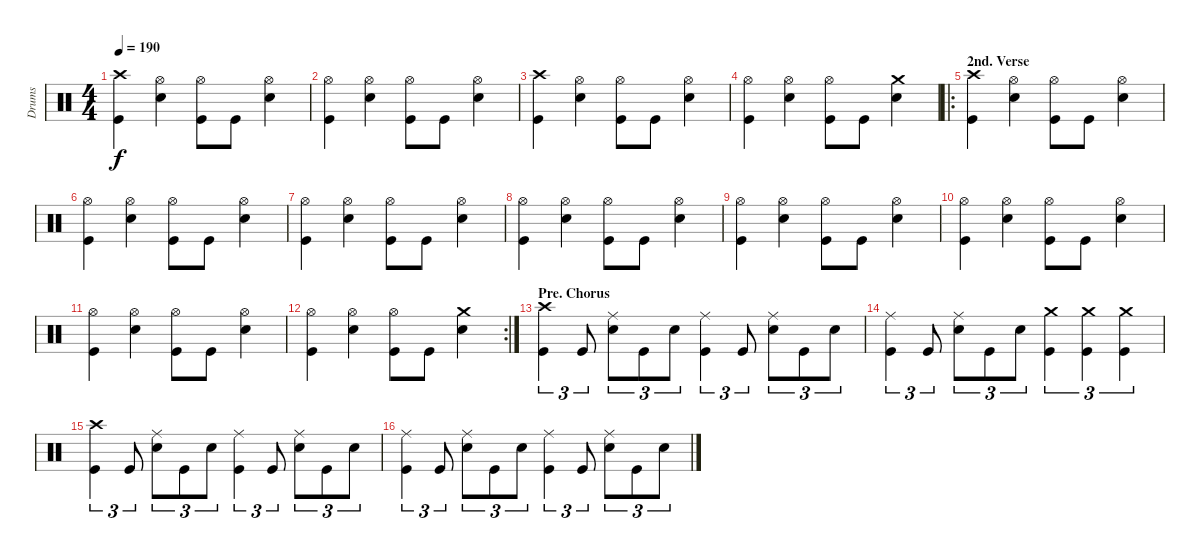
\track ("Drums" "Drums") {instrument percussion}
\staff {score}
\articulation defaults
\ts (4 4)
\tempo 190
\clef neutral
\ks c
("Crash high (hit)" "Kick (hit)").4{dy f} ("Hi-Hat (open)" "Snare (hit) 2").4 ("Hi-Hat (open)" "Kick (hit)").8 "Kick (hit)".8 ("Hi-Hat (open)" "Snare (hit) 2").4 |
("Hi-Hat (open)" "Kick (hit)").4 ("Hi-Hat (open)" "Snare (hit) 2").4 ("Hi-Hat (open)" "Kick (hit)").8 "Kick (hit)".8 ("Hi-Hat (open)" "Snare (hit) 2").4 |
("Crash high (hit)" "Kick (hit)").4 ("Hi-Hat (open)" "Snare (hit) 2").4 ("Hi-Hat (open)" "Kick (hit)").8 "Kick (hit)".8 ("Hi-Hat (open)" "Snare (hit) 2").4 |
("Hi-Hat (open)" "Kick (hit)").4 ("Hi-Hat (open)" "Snare (hit) 2").4 ("Hi-Hat (open)" "Kick (hit)").8 "Kick (hit)".8 ("Crash medium (hit)" "Snare (hit) 2").4 |
\ro
\section ("" "2nd. Verse")
("Crash high (hit)" "Kick (hit)").4 ("Hi-Hat (open)" "Snare (hit) 2").4 ("Hi-Hat (open)" "Kick (hit)").8 "Kick (hit)".8 ("Hi-Hat (open)" "Snare (hit) 2").4 |
("Hi-Hat (open)" "Kick (hit)").4 ("Hi-Hat (open)" "Snare (hit) 2").4 ("Hi-Hat (open)" "Kick (hit)").8 "Kick (hit)".8 ("Hi-Hat (open)" "Snare (hit) 2").4 |
("Hi-Hat (open)" "Kick (hit)").4 ("Hi-Hat (open)" "Snare (hit) 2").4 ("Hi-Hat (open)" "Kick (hit)").8 "Kick (hit)".8 ("Hi-Hat (open)" "Snare (hit) 2").4 |
("Hi-Hat (open)" "Kick (hit)").4 ("Hi-Hat (open)" "Snare (hit) 2").4 ("Hi-Hat (open)" "Kick (hit)").8 "Kick (hit)".8 ("Hi-Hat (open)" "Snare (hit) 2").4 |
("Hi-Hat (open)" "Kick (hit)").4 ("Hi-Hat (open)" "Snare (hit) 2").4 ("Hi-Hat (open)" "Kick (hit)").8 "Kick (hit)".8 ("Hi-Hat (open)" "Snare (hit) 2").4 |
("Hi-Hat (open)" "Kick (hit)").4 ("Hi-Hat (open)" "Snare (hit) 2").4 ("Hi-Hat (open)" "Kick (hit)").8 "Kick (hit)".8 ("Hi-Hat (open)" "Snare (hit) 2").4 |
("Hi-Hat (open)" "Kick (hit)").4 ("Hi-Hat (open)" "Snare (hit) 2").4 ("Hi-Hat (open)" "Kick (hit)").8 "Kick (hit)".8 ("Hi-Hat (open)" "Snare (hit) 2").4 |
\rc 2
("Hi-Hat (open)" "Kick (hit)").4 ("Hi-Hat (open)" "Snare (hit) 2").4 ("Hi-Hat (open)" "Kick (hit)").8 "Kick (hit)".8 ("Crash medium (hit)" "Snare (hit) 2").4 |
\section ("" "Pre. Chorus")
("Crash high (hit)" "Kick (hit)").4{tu (3 2)} "Kick (hit)".8{tu (3 2)} ("Ride (middle)" "Snare (hit) 2").8{tu (3 2)} "Kick (hit)".8{tu (3 2)} "Snare (hit) 2".8{tu (3 2)} ("Ride (middle)" "Kick (hit)").4{tu (3 2)} "Kick (hit)".8{tu (3 2)} ("Ride (middle)" "Snare (hit) 2").8{tu (3 2)} "Kick (hit)".8{tu (3 2)} "Snare (hit) 2".8{tu (3 2)} |
("Ride (middle)" "Kick (hit)").4{tu (3 2)} "Kick (hit)".8{tu (3 2)} ("Ride (middle)" "Snare (hit) 2").8{tu (3 2)} "Kick (hit)".8{tu (3 2)} "Snare (hit) 2".8{tu (3 2)} ("Crash medium (hit)" "Kick (hit)").4{tu (3 2)} ("Crash medium (hit)" "Kick (hit)").4{tu (3 2)} ("Crash medium (hit)" "Kick (hit)").4{tu (3 2)} |
("Crash high (hit)" "Kick (hit)").4{tu (3 2)} "Kick (hit)".8{tu (3 2)} ("Ride (middle)" "Snare (hit) 2").8{tu (3 2)} "Kick (hit)".8{tu (3 2)} "Snare (hit) 2".8{tu (3 2)} ("Ride (middle)" "Kick (hit)").4{tu (3 2)} "Kick (hit)".8{tu (3 2)} ("Ride (middle)" "Snare (hit) 2").8{tu (3 2)} "Kick (hit)".8{tu (3 2)} "Snare (hit) 2".8{tu (3 2)} |
("Ride (middle)" "Kick (hit)").4{tu (3 2)} "Kick (hit)".8{tu (3 2)} ("Ride (middle)" "Snare (hit) 2").8{tu (3 2)} "Kick (hit)".8{tu (3 2)} "Snare (hit) 2".8{tu (3 2)} ("Ride (middle)" "Kick (hit)").4{tu (3 2)} "Kick (hit)".8{tu (3 2)} ("Ride (middle)" "Snare (hit) 2").8{tu (3 2)} "Kick (hit)".8{tu (3 2)} "Snare (hit) 2".8{tu (3 2)}
